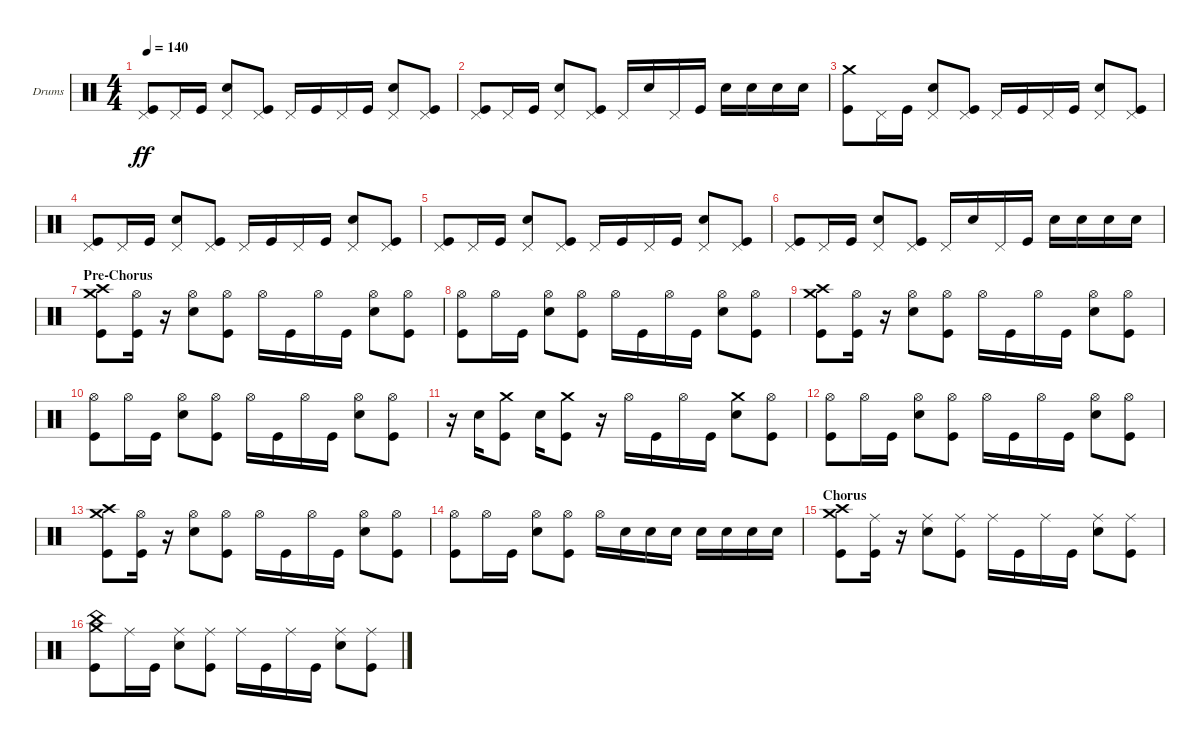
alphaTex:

\defaultSystemsLayout 4
\bracketExtendMode nobrackets
\firstSystemTrackNameOrientation horizontal
\otherSystemsTrackNameOrientation horizontal
\track ("Dave Abbruzzese" "Drums") {solo instrument percussion}
\staff {score}
\articulation defaults
\ts (4 4)
\tempo 140
\clef neutral
\ks c
("Kick (hit)" "Pedal Hi-Hat (hit)").8{dy ff} "Pedal Hi-Hat (hit)".16 "Kick (hit)".16 ("Snare (hit) 2" "Pedal Hi-Hat (hit)").8 ("Kick (hit)" "Pedal Hi-Hat (hit)").8 "Pedal Hi-Hat (hit)".16 "Kick (hit)".16 "Pedal Hi-Hat (hit)".16 "Kick (hit)".16 ("Snare (hit) 2" "Pedal Hi-Hat (hit)").8 ("Kick (hit)" "Pedal Hi-Hat (hit)").8 |
("Kick (hit)" "Pedal Hi-Hat (hit)").8 "Pedal Hi-Hat (hit)".16 "Kick (hit)".16 ("Snare (hit) 2" "Pedal Hi-Hat (hit)").8 ("Kick (hit)" "Pedal Hi-Hat (hit)").8 "Pedal Hi-Hat (hit)".16 "Snare (hit) 2".16 "Pedal Hi-Hat (hit)".16 "Kick (hit)".16 "Snare (hit) 2".16 "Snare (hit) 2".16 "Snare (hit) 2".16 "Snare (hit) 2".16 |
("Kick (hit)" "Crash medium (hit)").8 "Pedal Hi-Hat (hit)".16 "Kick (hit)".16 ("Snare (hit) 2" "Pedal Hi-Hat (hit)").8 ("Kick (hit)" "Pedal Hi-Hat (hit)").8 "Pedal Hi-Hat (hit)".16 "Kick (hit)".16 "Pedal Hi-Hat (hit)".16 "Kick (hit)".16 ("Snare (hit) 2" "Pedal Hi-Hat (hit)").8 ("Kick (hit)" "Pedal Hi-Hat (hit)").8 |
("Kick (hit)" "Pedal Hi-Hat (hit)").8 "Pedal Hi-Hat (hit)".16 "Kick (hit)".16 ("Snare (hit) 2" "Pedal Hi-Hat (hit)").8 ("Kick (hit)" "Pedal Hi-Hat (hit)").8 "Pedal Hi-Hat (hit)".16 "Kick (hit)".16 "Pedal Hi-Hat (hit)".16 "Kick (hit)".16 ("Snare (hit) 2" "Pedal Hi-Hat (hit)").8 ("Kick (hit)" "Pedal Hi-Hat (hit)").8 |
("Kick (hit)" "Pedal Hi-Hat (hit)").8 "Pedal Hi-Hat (hit)".16 "Kick (hit)".16 ("Snare (hit) 2" "Pedal Hi-Hat (hit)").8 ("Kick (hit)" "Pedal Hi-Hat (hit)").8 "Pedal Hi-Hat (hit)".16 "Kick (hit)".16 "Pedal Hi-Hat (hit)".16 "Kick (hit)".16 ("Snare (hit) 2" "Pedal Hi-Hat (hit)").8 ("Kick (hit)" "Pedal Hi-Hat (hit)").8 |
("Kick (hit)" "Pedal Hi-Hat (hit)").8 "Pedal Hi-Hat (hit)".16 "Kick (hit)".16 ("Snare (hit) 2" "Pedal Hi-Hat (hit)").8 ("Kick (hit)" "Pedal Hi-Hat (hit)").8 "Pedal Hi-Hat (hit)".16 "Snare (hit) 2".16 "Pedal Hi-Hat (hit)".16 "Kick (hit)".16 "Snare (hit) 2".16 "Snare (hit) 2".16 "Snare (hit) 2".16 "Snare (hit) 2".16 |
\section ("" "Pre-Chorus")
("Crash high (hit)" "Kick (hit)" "Crash medium (hit)").8 ("Kick (hit)" "Hi-Hat (open)").16 r.16 ("Snare (hit) 2" "Hi-Hat (open)").8 ("Kick (hit)" "Hi-Hat (open)").8 "Hi-Hat (open)".16 "Kick (hit)".16 "Hi-Hat (open)".16 "Kick (hit)".16 ("Snare (hit) 2" "Hi-Hat (open)").8 ("Kick (hit)" "Hi-Hat (open)").8 |
("Kick (hit)" "Hi-Hat (open)").8 "Hi-Hat (open)".16 "Kick (hit)".16 ("Snare (hit) 2" "Hi-Hat (open)").8 ("Kick (hit)" "Hi-Hat (open)").8 "Hi-Hat (open)".16 "Kick (hit)".16 "Hi-Hat (open)".16 "Kick (hit)".16 ("Snare (hit) 2" "Hi-Hat (open)").8 ("Kick (hit)" "Hi-Hat (open)").8 |
("Crash high (hit)" "Kick (hit)" "Crash medium (hit)").8 ("Kick (hit)" "Hi-Hat (open)").16 r.16 ("Snare (hit) 2" "Hi-Hat (open)").8 ("Kick (hit)" "Hi-Hat (open)").8 "Hi-Hat (open)".16 "Kick (hit)".16 "Hi-Hat (open)".16 "Kick (hit)".16 ("Snare (hit) 2" "Hi-Hat (open)").8 ("Kick (hit)" "Hi-Hat (open)").8 |
("Kick (hit)" "Hi-Hat (open)").8 "Hi-Hat (open)".16 "Kick (hit)".16 ("Snare (hit) 2" "Hi-Hat (open)").8 ("Kick (hit)" "Hi-Hat (open)").8 "Hi-Hat (open)".16 "Kick (hit)".16 "Hi-Hat (open)".16 "Kick (hit)".16 ("Snare (hit) 2" "Hi-Hat (open)").8 ("Kick (hit)" "Hi-Hat (open)").8 |
r.16 "Snare (hit) 2".16 ("Kick (hit)" "Crash medium (hit)").8 "Snare (hit) 2".16 ("Kick (hit)" "Crash medium (hit)").8 r.16 "Hi-Hat (open)".16 "Kick (hit)".16 "Hi-Hat (open)".16 "Kick (hit)".16 ("Snare (hit) 2" "Crash medium (hit)").8 ("Kick (hit)" "Hi-Hat (open)").8 |
("Kick (hit)" "Hi-Hat (open)").8 "Hi-Hat (open)".16 "Kick (hit)".16 ("Snare (hit) 2" "Hi-Hat (open)").8 ("Kick (hit)" "Hi-Hat (open)").8 "Hi-Hat (open)".16 "Kick (hit)".16 "Hi-Hat (open)".16 "Kick (hit)".16 ("Snare (hit) 2" "Hi-Hat (open)").8 ("Kick (hit)" "Hi-Hat (open)").8 |
("Crash high (hit)" "Kick (hit)" "Crash medium (hit)").8 ("Kick (hit)" "Hi-Hat (open)").16 r.16 ("Snare (hit) 2" "Hi-Hat (open)").8 ("Kick (hit)" "Hi-Hat (open)").8 "Hi-Hat (open)".16 "Kick (hit)".16 "Hi-Hat (open)".16 "Kick (hit)".16 ("Snare (hit) 2" "Hi-Hat (open)").8 ("Kick (hit)" "Hi-Hat (open)").8 |
("Kick (hit)" "Hi-Hat (open)").8 "Hi-Hat (open)".16 "Kick (hit)".16 ("Snare (hit) 2" "Hi-Hat (open)").8 ("Kick (hit)" "Hi-Hat (open)").8 "Hi-Hat (open)".16 "Snare (hit) 2".16 "Snare (hit) 2".16 "Snare (hit) 2".16 "Snare (hit) 2".16 "Snare (hit) 2".16 "Snare (hit) 2".16 "Snare (hit) 2".16 |
\section ("" "Chorus")
("Crash high (hit)" "Kick (hit)" "Crash medium (hit)").8 ("Kick (hit)" "Ride (middle)").16 r.16 ("Snare (hit) 2" "Ride (middle)").8 ("Kick (hit)" "Ride (middle)").8 "Ride (middle)".16 "Kick (hit)".16 "Ride (middle)".16 "Kick (hit)".16 ("Snare (hit) 2" "Ride (middle)").8 ("Kick (hit)" "Ride (middle)").8 |
("China (hit)" "Kick (hit)" "Crash medium (hit)").8 "Ride (middle)".16 "Kick (hit)".16 ("Snare (hit) 2" "Ride (middle)").8 ("Kick (hit)" "Ride (middle)").8 "Ride (middle)".16 "Kick (hit)".16 "Ride (middle)".16 "Kick (hit)".16 ("Snare (hit) 2" "Ride (middle)").8 ("Kick (hit)" "Ride (middle)").8
